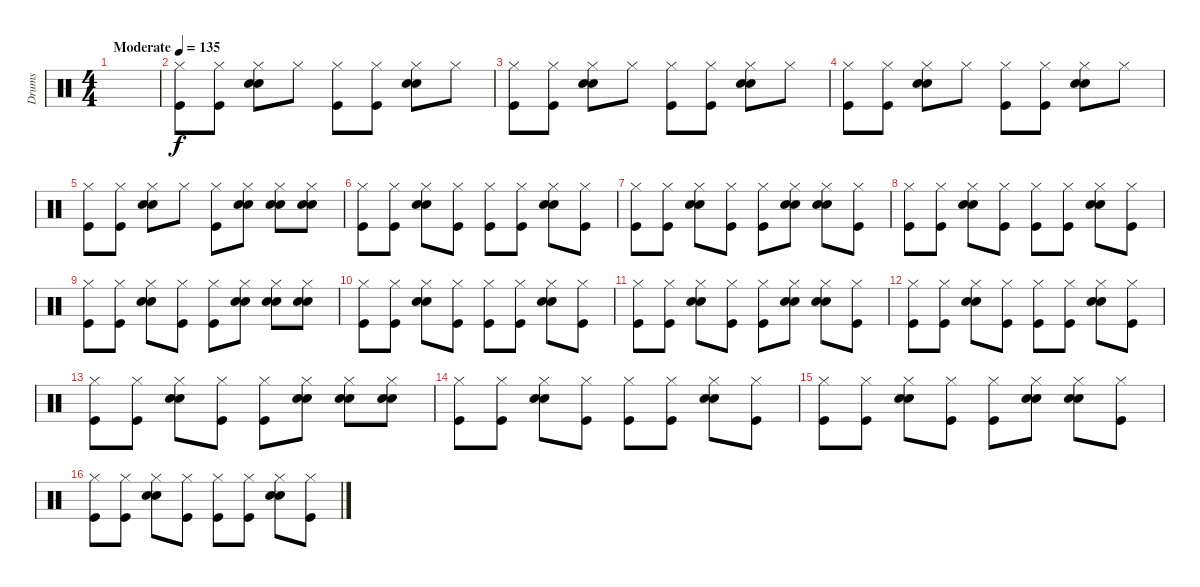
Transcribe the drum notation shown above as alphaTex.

\track ("Drums" "Drums") {instrument percussion}
\staff {score}
\articulation defaults
\ts (4 4)
\tempo (135 "Moderate")
\clef neutral
\ks c
|
("Hi-Hat (closed)" "Kick (hit)").8 ("Hi-Hat (closed)" "Kick (hit)").8 ("Hi-Hat (closed)" "Hand Clap (hit)" "Electric Snare (hit)").8 "Hi-Hat (closed)".8 ("Hi-Hat (closed)" "Kick (hit)").8 ("Hi-Hat (closed)" "Kick (hit)").8 ("Hi-Hat (closed)" "Hand Clap (hit)" "Electric Snare (hit)").8 "Hi-Hat (closed)".8 |
("Hi-Hat (closed)" "Kick (hit)").8 ("Hi-Hat (closed)" "Kick (hit)").8 ("Hi-Hat (closed)" "Hand Clap (hit)" "Electric Snare (hit)").8 "Hi-Hat (closed)".8 ("Hi-Hat (closed)" "Kick (hit)").8 ("Hi-Hat (closed)" "Kick (hit)").8 ("Hi-Hat (closed)" "Hand Clap (hit)" "Electric Snare (hit)").8 "Hi-Hat (closed)".8 |
("Hi-Hat (closed)" "Kick (hit)").8 ("Hi-Hat (closed)" "Kick (hit)").8 ("Hi-Hat (closed)" "Hand Clap (hit)" "Electric Snare (hit)").8 "Hi-Hat (closed)".8 ("Hi-Hat (closed)" "Kick (hit)").8 ("Hi-Hat (closed)" "Kick (hit)").8 ("Hi-Hat (closed)" "Hand Clap (hit)" "Electric Snare (hit)").8 "Hi-Hat (closed)".8 |
("Hi-Hat (closed)" "Kick (hit)").8 ("Hi-Hat (closed)" "Kick (hit)").8 ("Hi-Hat (closed)" "Hand Clap (hit)" "Electric Snare (hit)").8 "Hi-Hat (closed)".8 ("Hi-Hat (closed)" "Kick (hit)").8 ("Hi-Hat (closed)" "Hand Clap (hit)" "Snare (hit) 2").8 ("Hi-Hat (closed)" "Hand Clap (hit)" "Snare (hit) 2").8 ("Hi-Hat (closed)" "Hand Clap (hit)" "Snare (hit) 2").8 |
("Hi-Hat (closed)" "Kick (hit)").8 ("Hi-Hat (closed)" "Kick (hit)").8 ("Hi-Hat (closed)" "Hand Clap (hit)" "Electric Snare (hit)").8 ("Hi-Hat (closed)" "Kick (hit)").8 ("Hi-Hat (closed)" "Kick (hit)").8 ("Hi-Hat (closed)" "Kick (hit)").8 ("Hi-Hat (closed)" "Hand Clap (hit)" "Electric Snare (hit)").8 ("Hi-Hat (closed)" "Kick (hit)").8 |
("Hi-Hat (closed)" "Kick (hit)").8 ("Hi-Hat (closed)" "Kick (hit)").8 ("Hi-Hat (closed)" "Hand Clap (hit)" "Electric Snare (hit)").8 ("Hi-Hat (closed)" "Kick (hit)").8 ("Hi-Hat (closed)" "Kick (hit)").8 ("Hi-Hat (closed)" "Hand Clap (hit)" "Snare (hit) 2").8 ("Hi-Hat (closed)" "Hand Clap (hit)" "Snare (hit) 2").8 ("Hi-Hat (closed)" "Kick (hit)").8 |
("Hi-Hat (closed)" "Kick (hit)").8 ("Hi-Hat (closed)" "Kick (hit)").8 ("Hi-Hat (closed)" "Hand Clap (hit)" "Electric Snare (hit)").8 ("Hi-Hat (closed)" "Kick (hit)").8 ("Hi-Hat (closed)" "Kick (hit)").8 ("Hi-Hat (closed)" "Kick (hit)").8 ("Hi-Hat (closed)" "Hand Clap (hit)" "Electric Snare (hit)").8 ("Hi-Hat (closed)" "Kick (hit)").8 |
("Hi-Hat (closed)" "Kick (hit)").8 ("Hi-Hat (closed)" "Kick (hit)").8 ("Hi-Hat (closed)" "Hand Clap (hit)" "Electric Snare (hit)").8 ("Hi-Hat (closed)" "Kick (hit)").8 ("Hi-Hat (closed)" "Kick (hit)").8 ("Hi-Hat (closed)" "Hand Clap (hit)" "Snare (hit) 2").8 ("Hi-Hat (closed)" "Hand Clap (hit)" "Snare (hit) 2").8 ("Hi-Hat (closed)" "Hand Clap (hit)" "Snare (hit) 2").8 |
("Hi-Hat (closed)" "Kick (hit)").8 ("Hi-Hat (closed)" "Kick (hit)").8 ("Hi-Hat (closed)" "Hand Clap (hit)" "Electric Snare (hit)").8 ("Hi-Hat (closed)" "Kick (hit)").8 ("Hi-Hat (closed)" "Kick (hit)").8 ("Hi-Hat (closed)" "Kick (hit)").8 ("Hi-Hat (closed)" "Hand Clap (hit)" "Electric Snare (hit)").8 ("Hi-Hat (closed)" "Kick (hit)").8 |
("Hi-Hat (closed)" "Kick (hit)").8 ("Hi-Hat (closed)" "Kick (hit)").8 ("Hi-Hat (closed)" "Hand Clap (hit)" "Electric Snare (hit)").8 ("Hi-Hat (closed)" "Kick (hit)").8 ("Hi-Hat (closed)" "Kick (hit)").8 ("Hi-Hat (closed)" "Hand Clap (hit)" "Snare (hit) 2").8 ("Hi-Hat (closed)" "Hand Clap (hit)" "Snare (hit) 2").8 ("Hi-Hat (closed)" "Kick (hit)").8 |
("Hi-Hat (closed)" "Kick (hit)").8 ("Hi-Hat (closed)" "Kick (hit)").8 ("Hi-Hat (closed)" "Hand Clap (hit)" "Electric Snare (hit)").8 ("Hi-Hat (closed)" "Kick (hit)").8 ("Hi-Hat (closed)" "Kick (hit)").8 ("Hi-Hat (closed)" "Kick (hit)").8 ("Hi-Hat (closed)" "Hand Clap (hit)" "Electric Snare (hit)").8 ("Hi-Hat (closed)" "Kick (hit)").8 |
("Hi-Hat (closed)" "Kick (hit)").8 ("Hi-Hat (closed)" "Kick (hit)").8 ("Hi-Hat (closed)" "Hand Clap (hit)" "Electric Snare (hit)").8 ("Hi-Hat (closed)" "Kick (hit)").8 ("Hi-Hat (closed)" "Kick (hit)").8 ("Hi-Hat (closed)" "Hand Clap (hit)" "Snare (hit) 2").8 ("Hi-Hat (closed)" "Hand Clap (hit)" "Snare (hit) 2").8 ("Hi-Hat (closed)" "Hand Clap (hit)" "Snare (hit) 2").8 |
("Hi-Hat (closed)" "Kick (hit)").8 ("Hi-Hat (closed)" "Kick (hit)").8 ("Hi-Hat (closed)" "Hand Clap (hit)" "Electric Snare (hit)").8 ("Hi-Hat (closed)" "Kick (hit)").8 ("Hi-Hat (closed)" "Kick (hit)").8 ("Hi-Hat (closed)" "Kick (hit)").8 ("Hi-Hat (closed)" "Hand Clap (hit)" "Electric Snare (hit)").8 ("Hi-Hat (closed)" "Kick (hit)").8 |
("Hi-Hat (closed)" "Kick (hit)").8 ("Hi-Hat (closed)" "Kick (hit)").8 ("Hi-Hat (closed)" "Hand Clap (hit)" "Electric Snare (hit)").8 ("Hi-Hat (closed)" "Kick (hit)").8 ("Hi-Hat (closed)" "Kick (hit)").8 ("Hi-Hat (closed)" "Hand Clap (hit)" "Snare (hit) 2").8 ("Hi-Hat (closed)" "Hand Clap (hit)" "Snare (hit) 2").8 ("Hi-Hat (closed)" "Kick (hit)").8 |
("Hi-Hat (closed)" "Kick (hit)").8 ("Hi-Hat (closed)" "Kick (hit)").8 ("Hi-Hat (closed)" "Hand Clap (hit)" "Electric Snare (hit)").8 ("Hi-Hat (closed)" "Kick (hit)").8 ("Hi-Hat (closed)" "Kick (hit)").8 ("Hi-Hat (closed)" "Kick (hit)").8 ("Hi-Hat (closed)" "Hand Clap (hit)" "Electric Snare (hit)").8 ("Hi-Hat (closed)" "Kick (hit)").8
